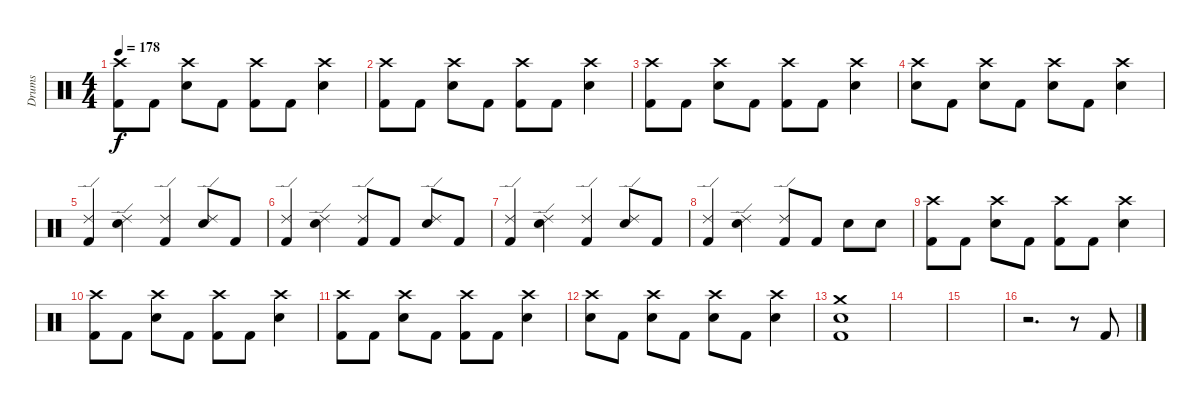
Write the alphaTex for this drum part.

\track ("Drums" "Drums") {instrument percussion}
\staff {score}
\articulation defaults
\ts (4 4)
\tempo 178
\clef neutral
\ks c
("Crash high (hit)" "Kick (hit) 2").8{dy f} "Kick (hit) 2".8 ("Crash high (hit)" "Electric Snare (hit)").8 "Kick (hit) 2".8 ("Crash high (hit)" "Kick (hit) 2").8 "Kick (hit) 2".8 ("Crash high (hit)" "Electric Snare (hit)").4 |
("Crash high (hit)" "Kick (hit) 2").8 "Kick (hit) 2".8 ("Crash high (hit)" "Electric Snare (hit)").8 "Kick (hit) 2".8 ("Crash high (hit)" "Kick (hit) 2").8 "Kick (hit) 2".8 ("Crash high (hit)" "Electric Snare (hit)").4 |
("Crash high (hit)" "Kick (hit) 2").8 "Kick (hit) 2".8 ("Crash high (hit)" "Electric Snare (hit)").8 "Kick (hit) 2".8 ("Crash high (hit)" "Kick (hit) 2").8 "Kick (hit) 2".8 ("Crash high (hit)" "Electric Snare (hit)").4 |
("Crash high (hit)" "Electric Snare (hit)").8 "Kick (hit) 2".8 ("Crash high (hit)" "Electric Snare (hit)").8 "Kick (hit) 2".8 ("Crash high (hit)" "Electric Snare (hit)").8 "Kick (hit) 2".8 ("Crash high (hit)" "Electric Snare (hit)").4 |
("Ride (edge) 2" "Kick (hit) 2").4 ("Ride (edge) 2" "Electric Snare (hit)").4 ("Ride (edge) 2" "Kick (hit) 2").4 ("Ride (edge) 2" "Electric Snare (hit)").8 "Kick (hit) 2".8 |
("Ride (edge) 2" "Kick (hit) 2").4 ("Ride (edge) 2" "Electric Snare (hit)").4 ("Ride (edge) 2" "Kick (hit) 2").8 "Kick (hit) 2".8 ("Ride (edge) 2" "Electric Snare (hit)").8 "Kick (hit) 2".8 |
("Ride (edge) 2" "Kick (hit) 2").4 ("Ride (edge) 2" "Electric Snare (hit)").4 ("Ride (edge) 2" "Kick (hit) 2").4 ("Ride (edge) 2" "Electric Snare (hit)").8 "Kick (hit) 2".8 |
("Ride (edge) 2" "Kick (hit) 2").4 ("Ride (edge) 2" "Electric Snare (hit)").4 ("Ride (edge) 2" "Kick (hit) 2").8 "Kick (hit) 2".8 "Electric Snare (hit)".8 "Electric Snare (hit)".8 |
("Crash high (hit)" "Kick (hit) 2").8 "Kick (hit) 2".8 ("Crash high (hit)" "Electric Snare (hit)").8 "Kick (hit) 2".8 ("Crash high (hit)" "Kick (hit) 2").8 "Kick (hit) 2".8 ("Crash high (hit)" "Electric Snare (hit)").4 |
("Crash high (hit)" "Kick (hit) 2").8 "Kick (hit) 2".8 ("Crash high (hit)" "Electric Snare (hit)").8 "Kick (hit) 2".8 ("Crash high (hit)" "Kick (hit) 2").8 "Kick (hit) 2".8 ("Crash high (hit)" "Electric Snare (hit)").4 |
("Crash high (hit)" "Kick (hit) 2").8 "Kick (hit) 2".8 ("Crash high (hit)" "Electric Snare (hit)").8 "Kick (hit) 2".8 ("Crash high (hit)" "Kick (hit) 2").8 "Kick (hit) 2".8 ("Crash high (hit)" "Electric Snare (hit)").4 |
("Crash high (hit)" "Electric Snare (hit)").8 "Kick (hit) 2".8 ("Crash high (hit)" "Electric Snare (hit)").8 "Kick (hit) 2".8 ("Crash high (hit)" "Electric Snare (hit)").8 "Kick (hit) 2".8 ("Crash high (hit)" "Electric Snare (hit)").4 |
("Crash medium (hit)" "Kick (hit) 2" "Electric Snare (hit)").1 |
|
|
r.2{d} r.8 "Kick (hit) 2".8
